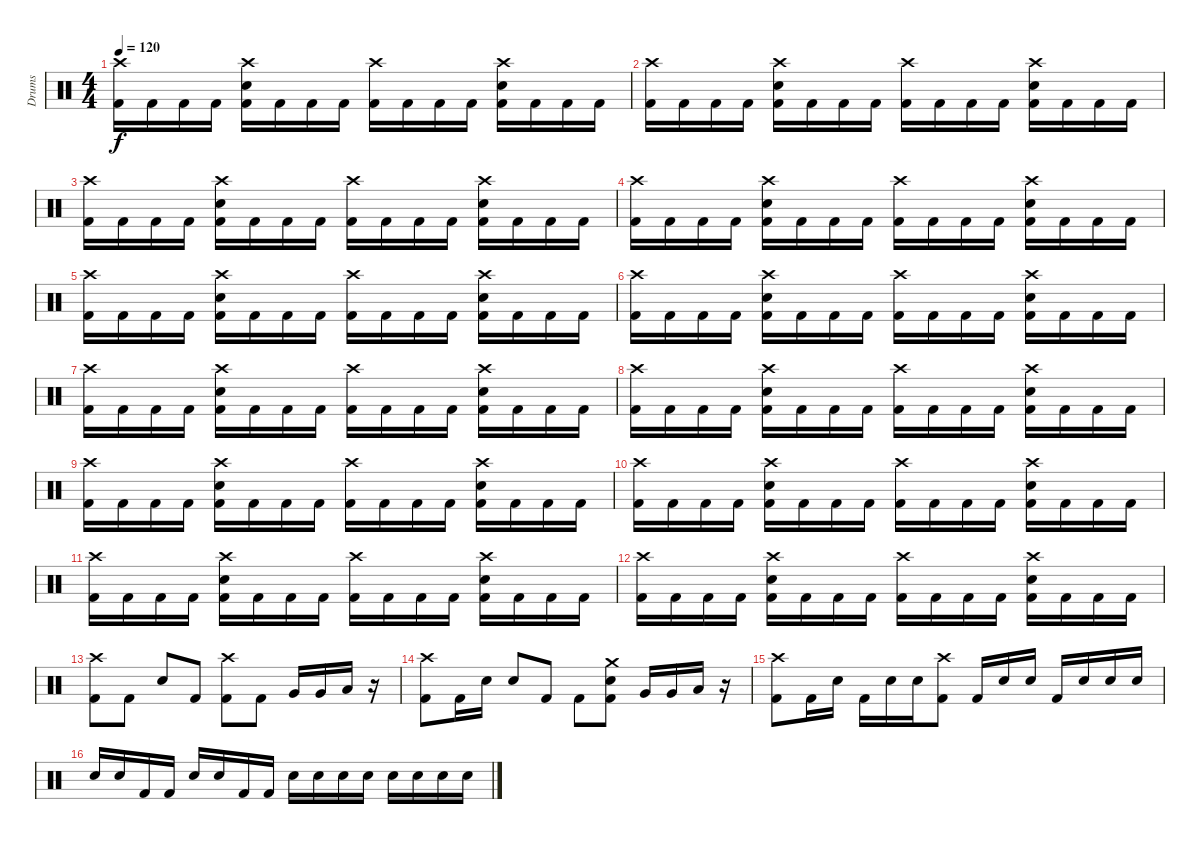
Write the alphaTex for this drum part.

\track ("Drums" "Drums") {instrument percussion}
\staff {score}
\articulation defaults
\ts (4 4)
\tempo 120
\clef neutral
\ks c
("Crash high (hit)" "Kick (hit) 2").16{dy f} "Kick (hit) 2".16 "Kick (hit) 2".16 "Kick (hit) 2".16 ("Crash high (hit)" "Snare (hit) 2" "Kick (hit) 2").16 "Kick (hit) 2".16 "Kick (hit) 2".16 "Kick (hit) 2".16 ("Crash high (hit)" "Kick (hit) 2").16 "Kick (hit) 2".16 "Kick (hit) 2".16 "Kick (hit) 2".16 ("Crash high (hit)" "Snare (hit) 2" "Kick (hit) 2").16 "Kick (hit) 2".16 "Kick (hit) 2".16 "Kick (hit) 2".16 |
("Crash high (hit)" "Kick (hit) 2").16 "Kick (hit) 2".16 "Kick (hit) 2".16 "Kick (hit) 2".16 ("Crash high (hit)" "Snare (hit) 2" "Kick (hit) 2").16 "Kick (hit) 2".16 "Kick (hit) 2".16 "Kick (hit) 2".16 ("Crash high (hit)" "Kick (hit) 2").16 "Kick (hit) 2".16 "Kick (hit) 2".16 "Kick (hit) 2".16 ("Crash high (hit)" "Snare (hit) 2" "Kick (hit) 2").16 "Kick (hit) 2".16 "Kick (hit) 2".16 "Kick (hit) 2".16 |
("Crash high (hit)" "Kick (hit) 2").16 "Kick (hit) 2".16 "Kick (hit) 2".16 "Kick (hit) 2".16 ("Crash high (hit)" "Snare (hit) 2" "Kick (hit) 2").16 "Kick (hit) 2".16 "Kick (hit) 2".16 "Kick (hit) 2".16 ("Crash high (hit)" "Kick (hit) 2").16 "Kick (hit) 2".16 "Kick (hit) 2".16 "Kick (hit) 2".16 ("Crash high (hit)" "Snare (hit) 2" "Kick (hit) 2").16 "Kick (hit) 2".16 "Kick (hit) 2".16 "Kick (hit) 2".16 |
("Crash high (hit)" "Kick (hit) 2").16 "Kick (hit) 2".16 "Kick (hit) 2".16 "Kick (hit) 2".16 ("Crash high (hit)" "Snare (hit) 2" "Kick (hit) 2").16 "Kick (hit) 2".16 "Kick (hit) 2".16 "Kick (hit) 2".16 ("Crash high (hit)" "Kick (hit) 2").16 "Kick (hit) 2".16 "Kick (hit) 2".16 "Kick (hit) 2".16 ("Crash high (hit)" "Snare (hit) 2" "Kick (hit) 2").16 "Kick (hit) 2".16 "Kick (hit) 2".16 "Kick (hit) 2".16 |
("Crash high (hit)" "Kick (hit) 2").16 "Kick (hit) 2".16 "Kick (hit) 2".16 "Kick (hit) 2".16 ("Crash high (hit)" "Snare (hit) 2" "Kick (hit) 2").16 "Kick (hit) 2".16 "Kick (hit) 2".16 "Kick (hit) 2".16 ("Crash high (hit)" "Kick (hit) 2").16 "Kick (hit) 2".16 "Kick (hit) 2".16 "Kick (hit) 2".16 ("Crash high (hit)" "Snare (hit) 2" "Kick (hit) 2").16 "Kick (hit) 2".16 "Kick (hit) 2".16 "Kick (hit) 2".16 |
("Crash high (hit)" "Kick (hit) 2").16 "Kick (hit) 2".16 "Kick (hit) 2".16 "Kick (hit) 2".16 ("Crash high (hit)" "Snare (hit) 2" "Kick (hit) 2").16 "Kick (hit) 2".16 "Kick (hit) 2".16 "Kick (hit) 2".16 ("Crash high (hit)" "Kick (hit) 2").16 "Kick (hit) 2".16 "Kick (hit) 2".16 "Kick (hit) 2".16 ("Crash high (hit)" "Snare (hit) 2" "Kick (hit) 2").16 "Kick (hit) 2".16 "Kick (hit) 2".16 "Kick (hit) 2".16 |
("Crash high (hit)" "Kick (hit) 2").16 "Kick (hit) 2".16 "Kick (hit) 2".16 "Kick (hit) 2".16 ("Crash high (hit)" "Snare (hit) 2" "Kick (hit) 2").16 "Kick (hit) 2".16 "Kick (hit) 2".16 "Kick (hit) 2".16 ("Crash high (hit)" "Kick (hit) 2").16 "Kick (hit) 2".16 "Kick (hit) 2".16 "Kick (hit) 2".16 ("Crash high (hit)" "Snare (hit) 2" "Kick (hit) 2").16 "Kick (hit) 2".16 "Kick (hit) 2".16 "Kick (hit) 2".16 |
("Crash high (hit)" "Kick (hit) 2").16 "Kick (hit) 2".16 "Kick (hit) 2".16 "Kick (hit) 2".16 ("Crash high (hit)" "Snare (hit) 2" "Kick (hit) 2").16 "Kick (hit) 2".16 "Kick (hit) 2".16 "Kick (hit) 2".16 ("Crash high (hit)" "Kick (hit) 2").16 "Kick (hit) 2".16 "Kick (hit) 2".16 "Kick (hit) 2".16 ("Crash high (hit)" "Snare (hit) 2" "Kick (hit) 2").16 "Kick (hit) 2".16 "Kick (hit) 2".16 "Kick (hit) 2".16 |
("Crash high (hit)" "Kick (hit) 2").16 "Kick (hit) 2".16 "Kick (hit) 2".16 "Kick (hit) 2".16 ("Crash high (hit)" "Snare (hit) 2" "Kick (hit) 2").16 "Kick (hit) 2".16 "Kick (hit) 2".16 "Kick (hit) 2".16 ("Crash high (hit)" "Kick (hit) 2").16 "Kick (hit) 2".16 "Kick (hit) 2".16 "Kick (hit) 2".16 ("Crash high (hit)" "Snare (hit) 2" "Kick (hit) 2").16 "Kick (hit) 2".16 "Kick (hit) 2".16 "Kick (hit) 2".16 |
("Crash high (hit)" "Kick (hit) 2").16 "Kick (hit) 2".16 "Kick (hit) 2".16 "Kick (hit) 2".16 ("Crash high (hit)" "Snare (hit) 2" "Kick (hit) 2").16 "Kick (hit) 2".16 "Kick (hit) 2".16 "Kick (hit) 2".16 ("Crash high (hit)" "Kick (hit) 2").16 "Kick (hit) 2".16 "Kick (hit) 2".16 "Kick (hit) 2".16 ("Crash high (hit)" "Snare (hit) 2" "Kick (hit) 2").16 "Kick (hit) 2".16 "Kick (hit) 2".16 "Kick (hit) 2".16 |
("Crash high (hit)" "Kick (hit) 2").16 "Kick (hit) 2".16 "Kick (hit) 2".16 "Kick (hit) 2".16 ("Crash high (hit)" "Snare (hit) 2" "Kick (hit) 2").16 "Kick (hit) 2".16 "Kick (hit) 2".16 "Kick (hit) 2".16 ("Crash high (hit)" "Kick (hit) 2").16 "Kick (hit) 2".16 "Kick (hit) 2".16 "Kick (hit) 2".16 ("Crash high (hit)" "Snare (hit) 2" "Kick (hit) 2").16 "Kick (hit) 2".16 "Kick (hit) 2".16 "Kick (hit) 2".16 |
("Crash high (hit)" "Kick (hit) 2").16 "Kick (hit) 2".16 "Kick (hit) 2".16 "Kick (hit) 2".16 ("Crash high (hit)" "Snare (hit) 2" "Kick (hit) 2").16 "Kick (hit) 2".16 "Kick (hit) 2".16 "Kick (hit) 2".16 ("Crash high (hit)" "Kick (hit) 2").16 "Kick (hit) 2".16 "Kick (hit) 2".16 "Kick (hit) 2".16 ("Crash high (hit)" "Snare (hit) 2" "Kick (hit) 2").16 "Kick (hit) 2".16 "Kick (hit) 2".16 "Kick (hit) 2".16 |
("Crash high (hit)" "Kick (hit) 2").8 "Kick (hit) 2".8 "Snare (hit) 2".8 "Kick (hit) 2".8 ("Crash high (hit)" "Kick (hit) 2").8 "Kick (hit) 2".8 "Very Low Tom (hit)".16 "Very Low Tom (hit)".16 "Low Floor Tom (hit)".16 r.16 |
("Crash high (hit)" "Kick (hit) 2").8 "Kick (hit) 2".16 "Snare (hit) 2".16 "Snare (hit) 2".8 "Kick (hit) 2".8 "Kick (hit) 2".8 ("Crash medium (hit)" "Snare (hit) 2" "Kick (hit) 2").8 "Very Low Tom (hit)".16 "Very Low Tom (hit)".16 "Low Floor Tom (hit)".16 r.16 |
("Crash high (hit)" "Kick (hit) 2").8 "Kick (hit) 2".16 "Snare (hit) 2".16 "Kick (hit) 2".16 "Snare (hit) 2".16 "Snare (hit) 2".16 ("Crash high (hit)" "Kick (hit) 2").8 "Kick (hit) 2".16 "Snare (hit) 2".16 "Snare (hit) 2".16 "Kick (hit) 2".16 "Snare (hit) 2".16 "Snare (hit) 2".16 "Snare (hit) 2".16 |
"Snare (hit) 2".16 "Snare (hit) 2".16 "Kick (hit) 2".16 "Kick (hit) 2".16 "Snare (hit) 2".16 "Snare (hit) 2".16 "Kick (hit) 2".16 "Kick (hit) 2".16 "Snare (hit) 2".16 "Snare (hit) 2".16 "Snare (hit) 2".16 "Snare (hit) 2".16 "Snare (hit) 2".16 "Snare (hit) 2".16 "Snare (hit) 2".16 "Snare (hit) 2".16
